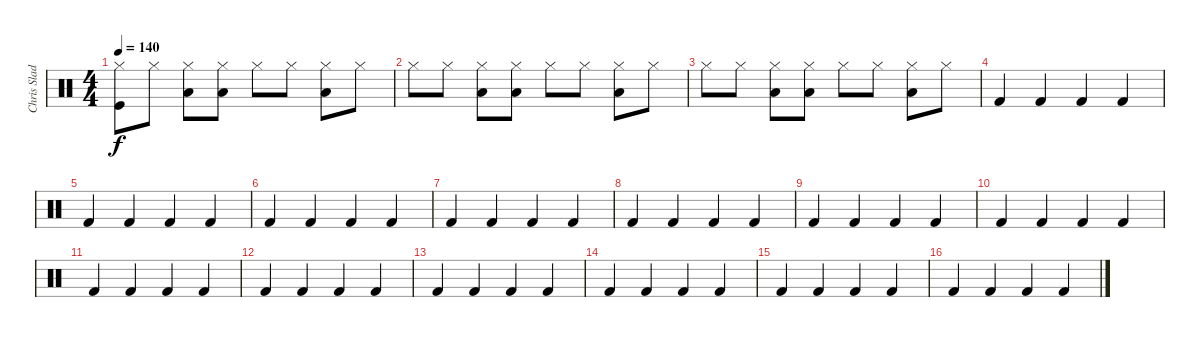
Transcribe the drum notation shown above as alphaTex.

\track ("Chris Slade" "Chris Slad") {instrument percussion}
\staff {score}
\articulation defaults
\ts (4 4)
\tempo 140
\clef neutral
\ks c
("Hi-Hat (closed)" "Kick (hit)").8{dy f} "Hi-Hat (closed)".8 ("Hi-Hat (closed)" "Low Tom (hit)").8 ("Hi-Hat (closed)" "Low Tom (hit)").8 "Hi-Hat (closed)".8 "Hi-Hat (closed)".8 ("Hi-Hat (closed)" "Low Tom (hit)").8 "Hi-Hat (closed)".8 |
"Hi-Hat (closed)".8 "Hi-Hat (closed)".8 ("Hi-Hat (closed)" "Low Tom (hit)").8 ("Hi-Hat (closed)" "Low Tom (hit)").8 "Hi-Hat (closed)".8 "Hi-Hat (closed)".8 ("Hi-Hat (closed)" "Low Tom (hit)").8 "Hi-Hat (closed)".8 |
"Hi-Hat (closed)".8 "Hi-Hat (closed)".8 ("Hi-Hat (closed)" "Low Tom (hit)").8 ("Hi-Hat (closed)" "Low Tom (hit)").8 "Hi-Hat (closed)".8 "Hi-Hat (closed)".8 ("Hi-Hat (closed)" "Low Tom (hit)").8 "Hi-Hat (closed)".8 |
"Kick (hit) 2".4 "Kick (hit) 2".4 "Kick (hit) 2".4 "Kick (hit) 2".4 |
"Kick (hit) 2".4 "Kick (hit) 2".4 "Kick (hit) 2".4 "Kick (hit) 2".4 |
"Kick (hit) 2".4 "Kick (hit) 2".4 "Kick (hit) 2".4 "Kick (hit) 2".4 |
"Kick (hit) 2".4 "Kick (hit) 2".4 "Kick (hit) 2".4 "Kick (hit) 2".4 |
"Kick (hit) 2".4 "Kick (hit) 2".4 "Kick (hit) 2".4 "Kick (hit) 2".4 |
"Kick (hit) 2".4 "Kick (hit) 2".4 "Kick (hit) 2".4 "Kick (hit) 2".4 |
"Kick (hit) 2".4 "Kick (hit) 2".4 "Kick (hit) 2".4 "Kick (hit) 2".4 |
"Kick (hit) 2".4 "Kick (hit) 2".4 "Kick (hit) 2".4 "Kick (hit) 2".4 |
"Kick (hit) 2".4 "Kick (hit) 2".4 "Kick (hit) 2".4 "Kick (hit) 2".4 |
"Kick (hit) 2".4 "Kick (hit) 2".4 "Kick (hit) 2".4 "Kick (hit) 2".4 |
"Kick (hit) 2".4 "Kick (hit) 2".4 "Kick (hit) 2".4 "Kick (hit) 2".4 |
"Kick (hit) 2".4 "Kick (hit) 2".4 "Kick (hit) 2".4 "Kick (hit) 2".4 |
"Kick (hit) 2".4 "Kick (hit) 2".4 "Kick (hit) 2".4 "Kick (hit) 2".4
